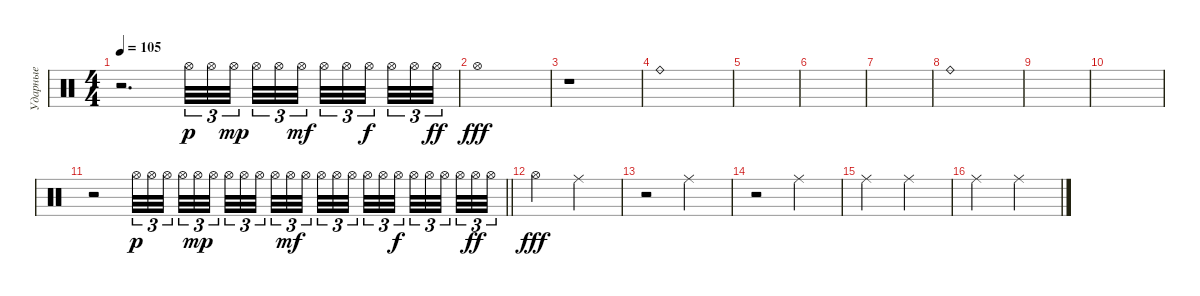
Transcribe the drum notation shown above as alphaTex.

\track ("Ударные" "Ударные") {instrument percussion}
\staff {score}
\articulation defaults
\ts (4 4)
\tempo 105
\clef neutral
\ks c
r.2{d dy fff} "Hi-Hat (open)".32{tu (3 2) dy p} "Hi-Hat (open)".32{tu (3 2)} "Hi-Hat (open)".32{tu (3 2) dy mp beam splitsecondary} "Hi-Hat (open)".32{tu (3 2)} "Hi-Hat (open)".32{tu (3 2)} "Hi-Hat (open)".32{tu (3 2) dy mf beam splitsecondary} "Hi-Hat (open)".32{tu (3 2)} "Hi-Hat (open)".32{tu (3 2)} "Hi-Hat (open)".32{tu (3 2) dy f beam splitsecondary} "Hi-Hat (open)".32{tu (3 2)} "Hi-Hat (open)".32{tu (3 2)} "Hi-Hat (open)".32{tu (3 2) dy ff} |
"Hi-Hat (open)".1{dy fff} |
r.1 |
"Ride (bell)".1 |
|
|
|
"Ride (bell)".1 |
|
|
\barLineRight lightlight
r.2 "Hi-Hat (open)".32{tu (3 2) dy p} "Hi-Hat (open)".32{tu (3 2)} "Hi-Hat (open)".32{tu (3 2) beam splitsecondary} "Hi-Hat (open)".32{tu (3 2)} "Hi-Hat (open)".32{tu (3 2) dy mp} "Hi-Hat (open)".32{tu (3 2) beam splitsecondary} "Hi-Hat (open)".32{tu (3 2)} "Hi-Hat (open)".32{tu (3 2)} "Hi-Hat (open)".32{tu (3 2) beam splitsecondary} "Hi-Hat (open)".32{tu (3 2)} "Hi-Hat (open)".32{tu (3 2) dy mf} "Hi-Hat (open)".32{tu (3 2)} "Hi-Hat (open)".32{tu (3 2)} "Hi-Hat (open)".32{tu (3 2)} "Hi-Hat (open)".32{tu (3 2) beam splitsecondary} "Hi-Hat (open)".32{tu (3 2)} "Hi-Hat (open)".32{tu (3 2)} "Hi-Hat (open)".32{tu (3 2) dy f beam splitsecondary} "Hi-Hat (open)".32{tu (3 2)} "Hi-Hat (open)".32{tu (3 2)} "Hi-Hat (open)".32{tu (3 2) beam splitsecondary} "Hi-Hat (open)".32{tu (3 2)} "Hi-Hat (open)".32{tu (3 2) dy ff} "Hi-Hat (open)".32{tu (3 2)} |
"Hi-Hat (open)".2{dy fff} "Ride (middle)".2 |
r.2 "Ride (middle)".2 |
r.2 "Ride (middle)".2 |
"Ride (middle)".2 "Ride (middle)".2 |
"Ride (middle)".2 "Ride (middle)".2
